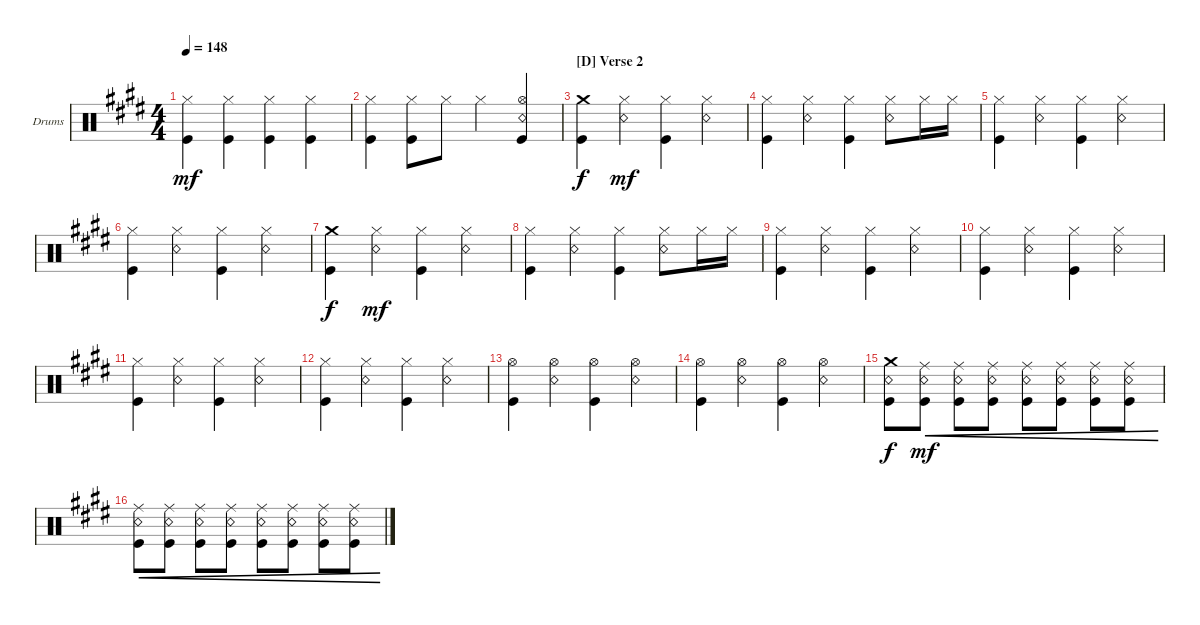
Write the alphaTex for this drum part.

\bracketExtendMode groupsimilarinstruments
\firstSystemTrackNameOrientation horizontal
\otherSystemsTrackNameOrientation horizontal
\track ("Drums" "Drums") {instrument percussion}
\staff {score}
\articulation defaults
\ts (4 4)
\tempo 148
\clef neutral
\ks e
("Kick (hit)" "Hi-Hat (closed)").4{dy mf} ("Kick (hit)" "Hi-Hat (closed)").4 ("Kick (hit)" "Hi-Hat (closed)").4 ("Kick (hit)" "Hi-Hat (closed)").4 |
("Kick (hit)" "Hi-Hat (closed)").4 ("Kick (hit)" "Hi-Hat (closed)").8 "Hi-Hat (closed)".8 "Hi-Hat (closed)".4 ("Kick (hit)" "Hi-Hat (open)" "Snare (rim shot)").4 |
\section ("D" "Verse 2")
("Kick (hit)" "Crash medium (hit)").4{dy f} ("Hi-Hat (closed)" "Snare (rim shot)").4{dy mf} ("Hi-Hat (closed)" "Kick (hit)").4 ("Hi-Hat (closed)" "Snare (rim shot)").4 |
("Hi-Hat (closed)" "Kick (hit)").4 ("Hi-Hat (closed)" "Snare (rim shot)").4 ("Hi-Hat (closed)" "Kick (hit)").4 ("Snare (rim shot)" "Hi-Hat (closed)").8 "Hi-Hat (closed)".16 "Hi-Hat (closed)".16 |
("Kick (hit)" "Hi-Hat (closed)").4 ("Hi-Hat (closed)" "Snare (rim shot)").4 ("Hi-Hat (closed)" "Kick (hit)").4 ("Hi-Hat (closed)" "Snare (rim shot)").4 |
("Hi-Hat (closed)" "Kick (hit)").4 ("Hi-Hat (closed)" "Snare (rim shot)").4 ("Hi-Hat (closed)" "Kick (hit)").4 ("Snare (rim shot)" "Hi-Hat (closed)").4 |
("Kick (hit)" "Crash medium (hit)").4{dy f} ("Hi-Hat (closed)" "Snare (rim shot)").4{dy mf} ("Hi-Hat (closed)" "Kick (hit)").4 ("Hi-Hat (closed)" "Snare (rim shot)").4 |
("Hi-Hat (closed)" "Kick (hit)").4 ("Hi-Hat (closed)" "Snare (rim shot)").4 ("Hi-Hat (closed)" "Kick (hit)").4 ("Snare (rim shot)" "Hi-Hat (closed)").8 "Hi-Hat (closed)".16 "Hi-Hat (closed)".16 |
("Kick (hit)" "Hi-Hat (closed)").4 ("Hi-Hat (closed)" "Snare (rim shot)").4 ("Hi-Hat (closed)" "Kick (hit)").4 ("Hi-Hat (closed)" "Snare (rim shot)").4 |
("Kick (hit)" "Hi-Hat (closed)").4 ("Hi-Hat (closed)" "Snare (rim shot)").4 ("Hi-Hat (closed)" "Kick (hit)").4 ("Hi-Hat (closed)" "Snare (rim shot)").4 |
("Hi-Hat (closed)" "Kick (hit)").4 ("Hi-Hat (closed)" "Snare (rim shot)").4 ("Hi-Hat (closed)" "Kick (hit)").4 ("Snare (rim shot)" "Hi-Hat (closed)").4 |
("Kick (hit)" "Hi-Hat (closed)").4 ("Hi-Hat (closed)" "Snare (rim shot)").4 ("Hi-Hat (closed)" "Kick (hit)").4 ("Hi-Hat (closed)" "Snare (rim shot)").4 |
("Hi-Hat (open)" "Kick (hit)").4 ("Hi-Hat (open)" "Snare (rim shot)").4 ("Hi-Hat (open)" "Kick (hit)").4 ("Snare (rim shot)" "Hi-Hat (open)").4 |
("Hi-Hat (open)" "Kick (hit)").4 ("Hi-Hat (open)" "Snare (rim shot)").4 ("Hi-Hat (open)" "Kick (hit)").4 ("Snare (rim shot)" "Hi-Hat (open)").4 |
("Snare (rim shot)" "Crash medium (hit)" "Kick (hit)").8{dy f} ("Snare (rim shot)" "Kick (hit)" "Ride (middle)").8{cre dy mf} ("Snare (rim shot)" "Kick (hit)" "Ride (middle)").8{cre} ("Snare (rim shot)" "Kick (hit)" "Ride (middle)").8{cre} ("Snare (rim shot)" "Kick (hit)" "Ride (middle)").8{cre} ("Snare (rim shot)" "Kick (hit)" "Ride (middle)").8{cre} ("Snare (rim shot)" "Kick (hit)" "Ride (middle)").8{cre} ("Snare (rim shot)" "Kick (hit)" "Ride (middle)").8{cre} |
("Snare (rim shot)" "Kick (hit)" "Ride (middle)").8{cre} ("Snare (rim shot)" "Kick (hit)" "Ride (middle)").8{cre} ("Snare (rim shot)" "Kick (hit)" "Ride (middle)").8{cre} ("Snare (rim shot)" "Kick (hit)" "Ride (middle)").8{cre} ("Snare (rim shot)" "Kick (hit)" "Ride (middle)").8{cre} ("Snare (rim shot)" "Kick (hit)" "Ride (middle)").8{cre} ("Snare (rim shot)" "Kick (hit)" "Ride (middle)").8{cre} ("Snare (rim shot)" "Kick (hit)" "Ride (middle)").8{cre}
